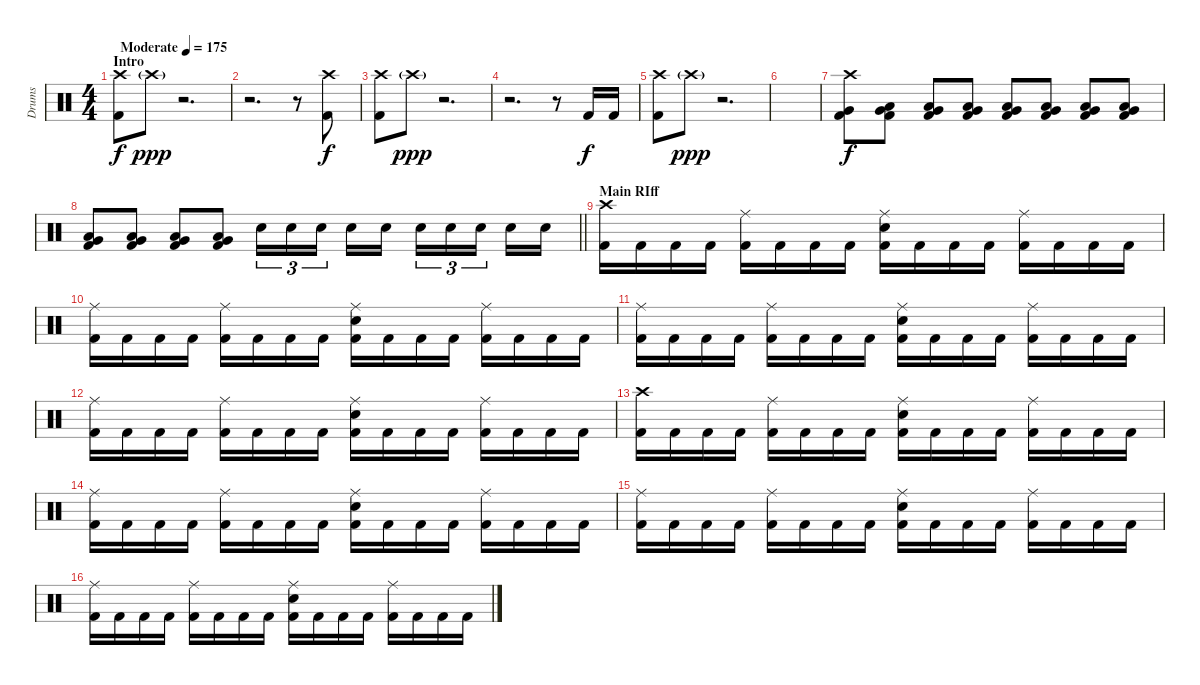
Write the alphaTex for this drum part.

\track ("Drums" "Drums") {instrument percussion}
\staff {score}
\articulation defaults
\ts (4 4)
\section ("" "Intro")
\tempo (175 "Moderate")
\clef neutral
\ks c
("Crash high (hit)" "Kick (hit) 2").8{dy f} "Crash high (hit)"{g}.8{dy ppp} r.2{d} |
r.2{d} r.8 ("Crash high (hit)" "Kick (hit) 2").8{dy f} |
("Crash high (hit)" "Kick (hit) 2").8 "Crash high (hit)"{g}.8{dy ppp} r.2{d} |
r.2{d} r.8 "Kick (hit) 2".16{dy f} "Kick (hit) 2".16 |
("Crash high (hit)" "Kick (hit) 2").8 "Crash high (hit)"{g}.8{dy ppp} r.2{d} |
|
("Crash high (hit)" "Very Low Tom (hit)" "Kick (hit) 2").8{dy f} ("Very Low Tom (hit)" "Low Floor Tom (hit)" "Kick (hit) 2").8 ("Very Low Tom (hit)" "Low Floor Tom (hit)" "Kick (hit) 2").8 ("Very Low Tom (hit)" "Low Floor Tom (hit)" "Kick (hit) 2").8 ("Very Low Tom (hit)" "Low Floor Tom (hit)" "Kick (hit) 2").8 ("Very Low Tom (hit)" "Low Floor Tom (hit)" "Kick (hit) 2").8 ("Very Low Tom (hit)" "Low Floor Tom (hit)" "Kick (hit) 2").8 ("Very Low Tom (hit)" "Low Floor Tom (hit)" "Kick (hit) 2").8 |
\barLineRight lightlight
("Very Low Tom (hit)" "Low Floor Tom (hit)" "Kick (hit) 2").8 ("Very Low Tom (hit)" "Low Floor Tom (hit)" "Kick (hit) 2").8 ("Very Low Tom (hit)" "Low Floor Tom (hit)" "Kick (hit) 2").8 ("Very Low Tom (hit)" "Low Floor Tom (hit)" "Kick (hit) 2").8 "Electric Snare (hit)".16{tu (3 2)} "Electric Snare (hit)".16{tu (3 2)} "Electric Snare (hit)".16{tu (3 2) beam splitsecondary} "Electric Snare (hit)".16 "Electric Snare (hit)".16 "Electric Snare (hit)".16{tu (3 2)} "Electric Snare (hit)".16{tu (3 2)} "Electric Snare (hit)".16{tu (3 2) beam splitsecondary} "Electric Snare (hit)".16 "Electric Snare (hit)".16 |
\section ("" "Main RIff")
("Crash high (hit)" "Kick (hit) 2").16 "Kick (hit) 2".16 "Kick (hit) 2".16 "Kick (hit) 2".16 ("Ride (middle)" "Kick (hit) 2").16 "Kick (hit) 2".16 "Kick (hit) 2".16 "Kick (hit) 2".16 ("Ride (middle)" "Electric Snare (hit)" "Kick (hit) 2").16 "Kick (hit) 2".16 "Kick (hit) 2".16 "Kick (hit) 2".16 ("Ride (middle)" "Kick (hit) 2").16 "Kick (hit) 2".16 "Kick (hit) 2".16 "Kick (hit) 2".16 |
("Ride (middle)" "Kick (hit) 2").16 "Kick (hit) 2".16 "Kick (hit) 2".16 "Kick (hit) 2".16 ("Ride (middle)" "Kick (hit) 2").16 "Kick (hit) 2".16 "Kick (hit) 2".16 "Kick (hit) 2".16 ("Ride (middle)" "Electric Snare (hit)" "Kick (hit) 2").16 "Kick (hit) 2".16 "Kick (hit) 2".16 "Kick (hit) 2".16 ("Ride (middle)" "Kick (hit) 2").16 "Kick (hit) 2".16 "Kick (hit) 2".16 "Kick (hit) 2".16 |
("Ride (middle)" "Kick (hit) 2").16 "Kick (hit) 2".16 "Kick (hit) 2".16 "Kick (hit) 2".16 ("Ride (middle)" "Kick (hit) 2").16 "Kick (hit) 2".16 "Kick (hit) 2".16 "Kick (hit) 2".16 ("Ride (middle)" "Electric Snare (hit)" "Kick (hit) 2").16 "Kick (hit) 2".16 "Kick (hit) 2".16 "Kick (hit) 2".16 ("Ride (middle)" "Kick (hit) 2").16 "Kick (hit) 2".16 "Kick (hit) 2".16 "Kick (hit) 2".16 |
("Ride (middle)" "Kick (hit) 2").16 "Kick (hit) 2".16 "Kick (hit) 2".16 "Kick (hit) 2".16 ("Ride (middle)" "Kick (hit) 2").16 "Kick (hit) 2".16 "Kick (hit) 2".16 "Kick (hit) 2".16 ("Ride (middle)" "Electric Snare (hit)" "Kick (hit) 2").16 "Kick (hit) 2".16 "Kick (hit) 2".16 "Kick (hit) 2".16 ("Ride (middle)" "Kick (hit) 2").16 "Kick (hit) 2".16 "Kick (hit) 2".16 "Kick (hit) 2".16 |
("Crash high (hit)" "Kick (hit) 2").16 "Kick (hit) 2".16 "Kick (hit) 2".16 "Kick (hit) 2".16 ("Ride (middle)" "Kick (hit) 2").16 "Kick (hit) 2".16 "Kick (hit) 2".16 "Kick (hit) 2".16 ("Ride (middle)" "Electric Snare (hit)" "Kick (hit) 2").16 "Kick (hit) 2".16 "Kick (hit) 2".16 "Kick (hit) 2".16 ("Ride (middle)" "Kick (hit) 2").16 "Kick (hit) 2".16 "Kick (hit) 2".16 "Kick (hit) 2".16 |
("Ride (middle)" "Kick (hit) 2").16 "Kick (hit) 2".16 "Kick (hit) 2".16 "Kick (hit) 2".16 ("Ride (middle)" "Kick (hit) 2").16 "Kick (hit) 2".16 "Kick (hit) 2".16 "Kick (hit) 2".16 ("Ride (middle)" "Electric Snare (hit)" "Kick (hit) 2").16 "Kick (hit) 2".16 "Kick (hit) 2".16 "Kick (hit) 2".16 ("Ride (middle)" "Kick (hit) 2").16 "Kick (hit) 2".16 "Kick (hit) 2".16 "Kick (hit) 2".16 |
("Ride (middle)" "Kick (hit) 2").16 "Kick (hit) 2".16 "Kick (hit) 2".16 "Kick (hit) 2".16 ("Ride (middle)" "Kick (hit) 2").16 "Kick (hit) 2".16 "Kick (hit) 2".16 "Kick (hit) 2".16 ("Ride (middle)" "Electric Snare (hit)" "Kick (hit) 2").16 "Kick (hit) 2".16 "Kick (hit) 2".16 "Kick (hit) 2".16 ("Ride (middle)" "Kick (hit) 2").16 "Kick (hit) 2".16 "Kick (hit) 2".16 "Kick (hit) 2".16 |
("Ride (middle)" "Kick (hit) 2").16 "Kick (hit) 2".16 "Kick (hit) 2".16 "Kick (hit) 2".16 ("Ride (middle)" "Kick (hit) 2").16 "Kick (hit) 2".16 "Kick (hit) 2".16 "Kick (hit) 2".16 ("Ride (middle)" "Electric Snare (hit)" "Kick (hit) 2").16 "Kick (hit) 2".16 "Kick (hit) 2".16 "Kick (hit) 2".16 ("Ride (middle)" "Kick (hit) 2").16 "Kick (hit) 2".16 "Kick (hit) 2".16 "Kick (hit) 2".16
